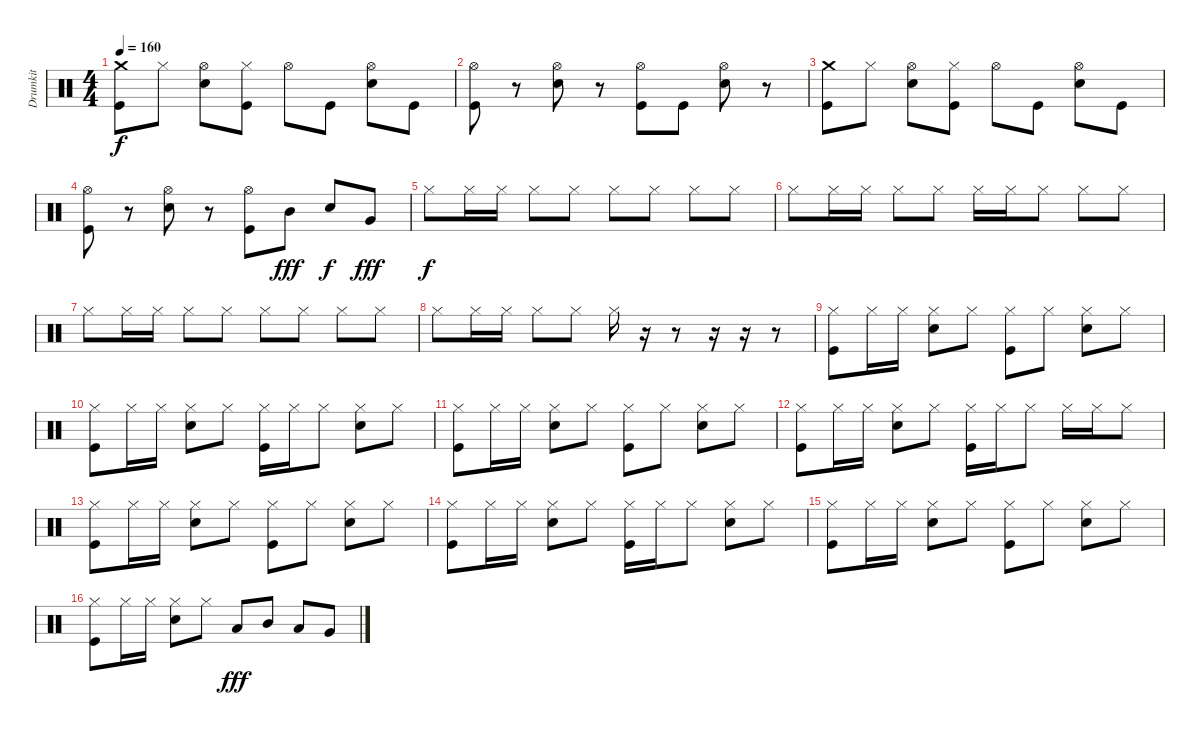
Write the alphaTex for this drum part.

\track ("Drumkit" "Drumkit") {instrument percussion}
\staff {score}
\articulation defaults
\ts (4 4)
\tempo 160
\clef neutral
\ks c
("Kick (hit)" "Crash medium (hit)").8{dy f} "Hi-Hat (closed)".8 ("Snare (hit) 2" "Hi-Hat (open)").8 ("Kick (hit)" "Hi-Hat (closed)").8 "Hi-Hat (open)".8 "Kick (hit)".8 ("Snare (hit) 2" "Hi-Hat (open)").8 "Kick (hit)".8 |
("Kick (hit)" "Hi-Hat (open)").8 r.8 ("Snare (hit) 2" "Hi-Hat (open)").8 r.8 ("Kick (hit)" "Hi-Hat (open)").8 "Kick (hit)".8 ("Snare (hit) 2" "Hi-Hat (open)").8 r.8 |
("Kick (hit)" "Crash medium (hit)").8 "Hi-Hat (closed)".8 ("Snare (hit) 2" "Hi-Hat (open)").8 ("Kick (hit)" "Hi-Hat (closed)").8 "Hi-Hat (open)".8 "Kick (hit)".8 ("Snare (hit) 2" "Hi-Hat (open)").8 "Kick (hit)".8 |
("Kick (hit)" "Hi-Hat (open)").8 r.8 ("Snare (hit) 2" "Hi-Hat (open)").8 r.8 ("Kick (hit)" "Hi-Hat (open)").8 "Mid Tom (hit)".8{dy fff} "Snare (hit) 2".8{dy f} "Very Low Tom (hit)".8{dy fff} |
"Hi-Hat (closed)".8{dy f} "Hi-Hat (closed)".16 "Hi-Hat (closed)".16 "Hi-Hat (closed)".8 "Hi-Hat (closed)".8 "Hi-Hat (closed)".8 "Hi-Hat (closed)".8 "Hi-Hat (closed)".8 "Hi-Hat (closed)".8 |
"Hi-Hat (closed)".8 "Hi-Hat (closed)".16 "Hi-Hat (closed)".16 "Hi-Hat (closed)".8 "Hi-Hat (closed)".8 "Hi-Hat (closed)".16 "Hi-Hat (closed)".16 "Hi-Hat (closed)".8 "Hi-Hat (closed)".8 "Hi-Hat (closed)".8 |
"Hi-Hat (closed)".8 "Hi-Hat (closed)".16 "Hi-Hat (closed)".16 "Hi-Hat (closed)".8 "Hi-Hat (closed)".8 "Hi-Hat (closed)".8 "Hi-Hat (closed)".8 "Hi-Hat (closed)".8 "Hi-Hat (closed)".8 |
"Hi-Hat (closed)".8 "Hi-Hat (closed)".16 "Hi-Hat (closed)".16 "Hi-Hat (closed)".8 "Hi-Hat (closed)".8 "Hi-Hat (closed)".16 r.16 r.8 r.16 r.16 r.8 |
("Hi-Hat (closed)" "Kick (hit)").8 "Hi-Hat (closed)".16 "Hi-Hat (closed)".16 ("Hi-Hat (closed)" "Snare (hit) 2").8 "Hi-Hat (closed)".8 ("Hi-Hat (closed)" "Kick (hit)").8 "Hi-Hat (closed)".8 ("Hi-Hat (closed)" "Snare (hit) 2").8 "Hi-Hat (closed)".8 |
("Hi-Hat (closed)" "Kick (hit)").8 "Hi-Hat (closed)".16 "Hi-Hat (closed)".16 ("Hi-Hat (closed)" "Snare (hit) 2").8 "Hi-Hat (closed)".8 ("Hi-Hat (closed)" "Kick (hit)").16 "Hi-Hat (closed)".16 "Hi-Hat (closed)".8 ("Hi-Hat (closed)" "Snare (hit) 2").8 "Hi-Hat (closed)".8 |
("Hi-Hat (closed)" "Kick (hit)").8 "Hi-Hat (closed)".16 "Hi-Hat (closed)".16 ("Hi-Hat (closed)" "Snare (hit) 2").8 "Hi-Hat (closed)".8 ("Hi-Hat (closed)" "Kick (hit)").8 "Hi-Hat (closed)".8 ("Hi-Hat (closed)" "Snare (hit) 2").8 "Hi-Hat (closed)".8 |
("Hi-Hat (closed)" "Kick (hit)").8 "Hi-Hat (closed)".16 "Hi-Hat (closed)".16 ("Hi-Hat (closed)" "Snare (hit) 2").8 "Hi-Hat (closed)".8 ("Hi-Hat (closed)" "Kick (hit)").16 "Hi-Hat (closed)".16 "Hi-Hat (closed)".8 "Hi-Hat (closed)".16 "Hi-Hat (closed)".16 "Hi-Hat (closed)".8 |
("Hi-Hat (closed)" "Kick (hit)").8 "Hi-Hat (closed)".16 "Hi-Hat (closed)".16 ("Hi-Hat (closed)" "Snare (hit) 2").8 "Hi-Hat (closed)".8 ("Hi-Hat (closed)" "Kick (hit)").8 "Hi-Hat (closed)".8 ("Hi-Hat (closed)" "Snare (hit) 2").8 "Hi-Hat (closed)".8 |
("Hi-Hat (closed)" "Kick (hit)").8 "Hi-Hat (closed)".16 "Hi-Hat (closed)".16 ("Hi-Hat (closed)" "Snare (hit) 2").8 "Hi-Hat (closed)".8 ("Hi-Hat (closed)" "Kick (hit)").16 "Hi-Hat (closed)".16 "Hi-Hat (closed)".8 ("Hi-Hat (closed)" "Snare (hit) 2").8 "Hi-Hat (closed)".8 |
("Hi-Hat (closed)" "Kick (hit)").8 "Hi-Hat (closed)".16 "Hi-Hat (closed)".16 ("Hi-Hat (closed)" "Snare (hit) 2").8 "Hi-Hat (closed)".8 ("Hi-Hat (closed)" "Kick (hit)").8 "Hi-Hat (closed)".8 ("Hi-Hat (closed)" "Snare (hit) 2").8 "Hi-Hat (closed)".8 |
("Hi-Hat (closed)" "Kick (hit)").8 "Hi-Hat (closed)".16 "Hi-Hat (closed)".16 ("Hi-Hat (closed)" "Snare (hit) 2").8 "Hi-Hat (closed)".8 "Low Tom (hit)".8{dy fff} "Mid Tom (hit)".8 "Low Tom (hit)".8 "Very Low Tom (hit)".8
